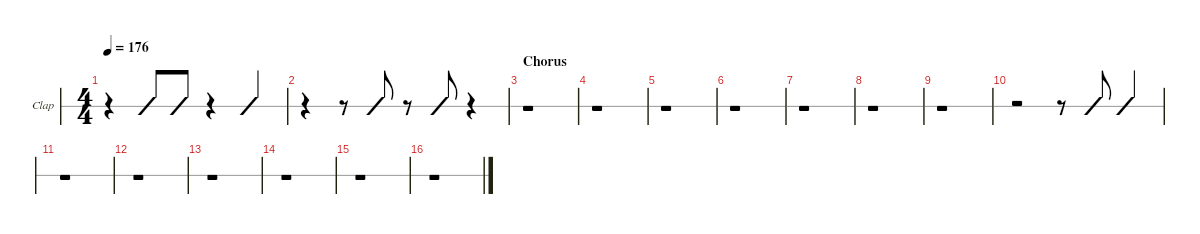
\defaultSystemsLayout 4
\hideDynamics
\bracketExtendMode nobrackets
\firstSystemTrackNameOrientation horizontal
\track ("Clap" "Clap") {defaultSystemsLayout 4 instrument percussion}
\staff {slash}
\articulation defaults
\ts (4 4)
\tempo 176
\clef neutral
\ks a
r.4{dy fff} "Hand Clap (hit)"{acc forcenatural}.8 "Hand Clap (hit)"{acc forcenatural}.8 r.4 "Hand Clap (hit)"{acc forcenatural}.4 |
r.4 r.8 "Hand Clap (hit)"{acc forcenatural}.8 r.8 "Hand Clap (hit)"{acc forcenatural}.8 r.4 |
\section ("" "Chorus")
\ks f#
r.1 |
r.1 |
r.1 |
r.1 |
r.1 |
r.1 |
r.1 |
r.2 r.8 "Hand Clap (hit)"{acc forcenatural}.8 "Hand Clap (hit)"{acc forcenatural}.4 |
r.1 |
r.1 |
r.1 |
r.1 |
r.1 |
r.1
